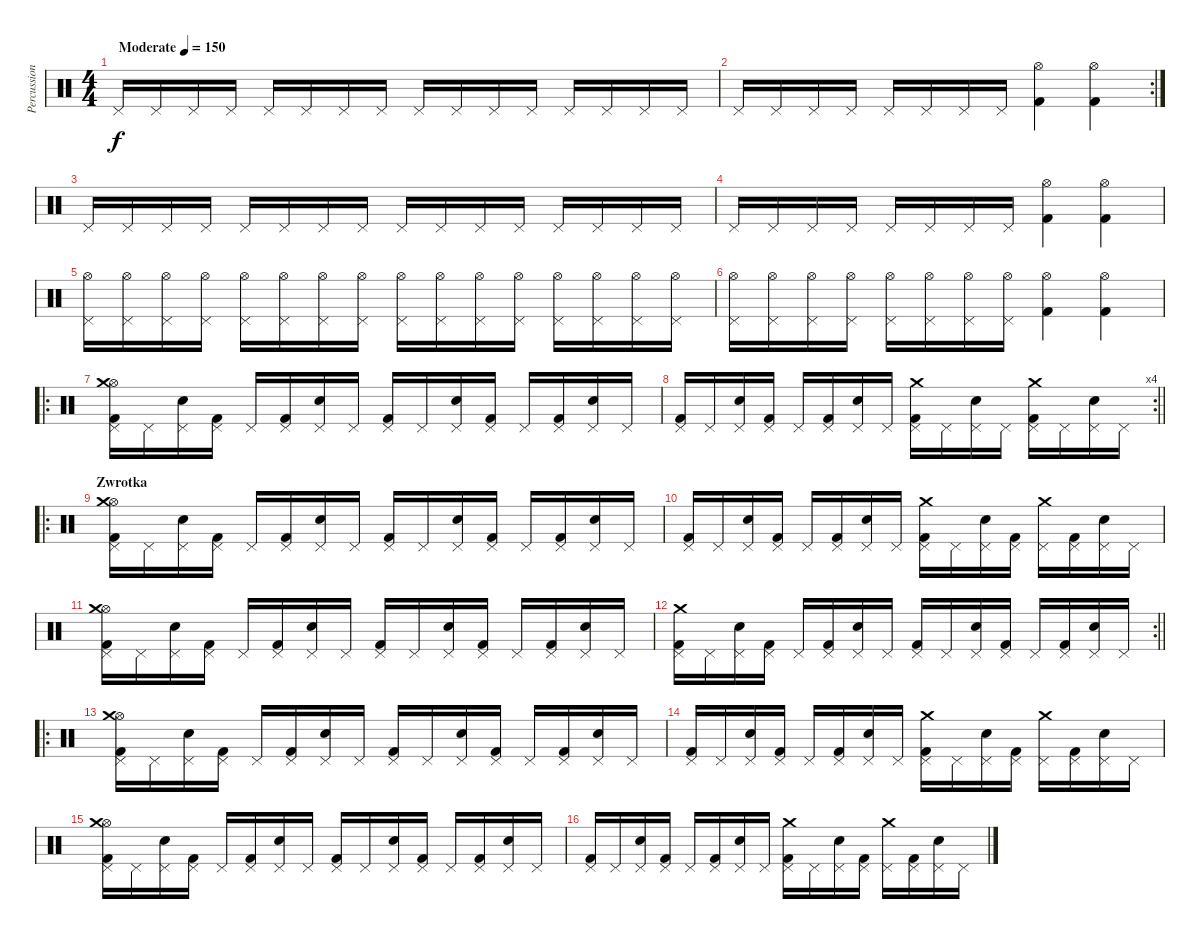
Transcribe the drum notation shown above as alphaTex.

\track ("Percussion" "Percussion") {instrument percussion}
\staff {score}
\articulation defaults
\ts (4 4)
\tempo (150 "Moderate")
\clef neutral
\ks c "Pedal Hi-Hat (hit)".16{dy f} "Pedal Hi-Hat (hit)".16 "Pedal Hi-Hat (hit)".16 "Pedal Hi-Hat (hit)".16 "Pedal Hi-Hat (hit)".16 "Pedal Hi-Hat (hit)".16 "Pedal Hi-Hat (hit)".16 "Pedal Hi-Hat (hit)".16 "Pedal Hi-Hat (hit)".16 "Pedal Hi-Hat (hit)".16 "Pedal Hi-Hat (hit)".16 "Pedal Hi-Hat (hit)".16 "Pedal Hi-Hat (hit)".16 "Pedal Hi-Hat (hit)".16 "Pedal Hi-Hat (hit)".16 "Pedal Hi-Hat (hit)".16
|
\rc 2 "Pedal Hi-Hat (hit)".16 "Pedal Hi-Hat (hit)".16 "Pedal Hi-Hat (hit)".16 "Pedal Hi-Hat (hit)".16 "Pedal Hi-Hat (hit)".16 "Pedal Hi-Hat (hit)".16 "Pedal Hi-Hat (hit)".16 "Pedal Hi-Hat (hit)".16
("Kick (hit) 2" "Hi-Hat (open)").4 ("Kick (hit) 2" "Hi-Hat (open)").4 |
"Pedal Hi-Hat (hit)".16 "Pedal Hi-Hat (hit)".16 "Pedal Hi-Hat (hit)".16 "Pedal Hi-Hat (hit)".16 "Pedal Hi-Hat (hit)".16 "Pedal Hi-Hat (hit)".16 "Pedal Hi-Hat (hit)".16 "Pedal Hi-Hat (hit)".16 "Pedal Hi-Hat (hit)".16 "Pedal Hi-Hat (hit)".16 "Pedal Hi-Hat (hit)".16 "Pedal Hi-Hat (hit)".16 "Pedal Hi-Hat (hit)".16 "Pedal Hi-Hat (hit)".16 "Pedal Hi-Hat (hit)".16 "Pedal Hi-Hat (hit)".16 |
"Pedal Hi-Hat (hit)".16 "Pedal Hi-Hat (hit)".16 "Pedal Hi-Hat (hit)".16 "Pedal Hi-Hat (hit)".16 "Pedal Hi-Hat (hit)".16 "Pedal Hi-Hat (hit)".16 "Pedal Hi-Hat (hit)".16 "Pedal Hi-Hat (hit)".16 ("Kick (hit) 2" "Hi-Hat (open)").4 ("Kick (hit) 2" "Hi-Hat (open)").4 |
("Pedal Hi-Hat (hit)" "Hi-Hat (open)").16 ("Pedal Hi-Hat (hit)" "Hi-Hat (open)").16 ("Pedal Hi-Hat (hit)" "Hi-Hat (open)").16 ("Pedal Hi-Hat (hit)" "Hi-Hat (open)").16 ("Pedal Hi-Hat (hit)" "Hi-Hat (open)").16 ("Pedal Hi-Hat (hit)" "Hi-Hat (open)").16 ("Pedal Hi-Hat (hit)" "Hi-Hat (open)").16 ("Pedal Hi-Hat (hit)" "Hi-Hat (open)").16 ("Pedal Hi-Hat (hit)" "Hi-Hat (open)").16 ("Pedal Hi-Hat (hit)" "Hi-Hat (open)").16 ("Pedal Hi-Hat (hit)" "Hi-Hat (open)").16 ("Pedal Hi-Hat (hit)" "Hi-Hat (open)").16 ("Pedal Hi-Hat (hit)" "Hi-Hat (open)").16 ("Pedal Hi-Hat (hit)" "Hi-Hat (open)").16 ("Pedal Hi-Hat (hit)" "Hi-Hat (open)").16 ("Pedal Hi-Hat (hit)" "Hi-Hat (open)").16 |
("Pedal Hi-Hat (hit)" "Hi-Hat (open)").16 ("Pedal Hi-Hat (hit)" "Hi-Hat (open)").16 ("Pedal Hi-Hat (hit)" "Hi-Hat (open)").16 ("Pedal Hi-Hat (hit)" "Hi-Hat (open)").16 ("Pedal Hi-Hat (hit)" "Hi-Hat (open)").16 ("Pedal Hi-Hat (hit)" "Hi-Hat (open)").16 ("Pedal Hi-Hat (hit)" "Hi-Hat (open)").16 ("Pedal Hi-Hat (hit)" "Hi-Hat (open)").16 ("Kick (hit) 2" "Hi-Hat (open)").4 ("Kick (hit) 2" "Hi-Hat (open)").4 |
\ro
("Pedal Hi-Hat (hit)" "Kick (hit) 2" "Hi-Hat (open)" "Crash medium (hit)").16 "Pedal Hi-Hat (hit)".16 ("Pedal Hi-Hat (hit)" "Snare (hit) 2").16 ("Pedal Hi-Hat (hit)" "Kick (hit) 2").16 "Pedal Hi-Hat (hit)".16 ("Pedal Hi-Hat (hit)" "Kick (hit) 2").16 ("Pedal Hi-Hat (hit)" "Snare (hit) 2").16 "Pedal Hi-Hat (hit)".16 ("Pedal Hi-Hat (hit)" "Kick (hit) 2").16 "Pedal Hi-Hat (hit)".16 ("Pedal Hi-Hat (hit)" "Snare (hit) 2").16 ("Pedal Hi-Hat (hit)" "Kick (hit) 2").16 "Pedal Hi-Hat (hit)".16 ("Pedal Hi-Hat (hit)" "Kick (hit) 2").16 ("Pedal Hi-Hat (hit)" "Snare (hit) 2").16 "Pedal Hi-Hat (hit)".16 |
\rc 4
\barLineRight lightlight
("Pedal Hi-Hat (hit)" "Kick (hit) 2").16 "Pedal Hi-Hat (hit)".16 ("Pedal Hi-Hat (hit)" "Snare (hit) 2").16 ("Pedal Hi-Hat (hit)" "Kick (hit) 2").16 "Pedal Hi-Hat (hit)".16 ("Pedal Hi-Hat (hit)" "Kick (hit) 2").16 ("Pedal Hi-Hat (hit)" "Snare (hit) 2").16 "Pedal Hi-Hat (hit)".16 ("Pedal Hi-Hat (hit)" "Kick (hit) 2" "Crash medium (hit)").16 "Pedal Hi-Hat (hit)".16 ("Pedal Hi-Hat (hit)" "Snare (hit) 2").16 "Pedal Hi-Hat (hit)".16 ("Pedal Hi-Hat (hit)" "Kick (hit) 2" "Crash medium (hit)").16 "Pedal Hi-Hat (hit)".16 ("Pedal Hi-Hat (hit)" "Snare (hit) 2").16 "Pedal Hi-Hat (hit)".16 |
\ro
\section ("" "Zwrotka")
("Pedal Hi-Hat (hit)" "Kick (hit) 2" "Hi-Hat (open)" "Crash medium (hit)").16 "Pedal Hi-Hat (hit)".16 ("Pedal Hi-Hat (hit)" "Snare (hit) 2").16 ("Pedal Hi-Hat (hit)" "Kick (hit) 2").16 "Pedal Hi-Hat (hit)".16 ("Pedal Hi-Hat (hit)" "Kick (hit) 2").16 ("Pedal Hi-Hat (hit)" "Snare (hit) 2").16 "Pedal Hi-Hat (hit)".16 ("Pedal Hi-Hat (hit)" "Kick (hit) 2").16 "Pedal Hi-Hat (hit)".16 ("Pedal Hi-Hat (hit)" "Snare (hit) 2").16 ("Pedal Hi-Hat (hit)" "Kick (hit) 2").16 "Pedal Hi-Hat (hit)".16 ("Pedal Hi-Hat (hit)" "Kick (hit) 2").16 ("Pedal Hi-Hat (hit)" "Snare (hit) 2").16 "Pedal Hi-Hat (hit)".16 |
("Pedal Hi-Hat (hit)" "Kick (hit) 2").16 "Pedal Hi-Hat (hit)".16 ("Pedal Hi-Hat (hit)" "Snare (hit) 2").16 ("Pedal Hi-Hat (hit)" "Kick (hit) 2").16 "Pedal Hi-Hat (hit)".16 ("Pedal Hi-Hat (hit)" "Kick (hit) 2").16 ("Pedal Hi-Hat (hit)" "Snare (hit) 2").16 "Pedal Hi-Hat (hit)".16 ("Pedal Hi-Hat (hit)" "Kick (hit) 2" "Crash medium (hit)").16 "Pedal Hi-Hat (hit)".16 ("Pedal Hi-Hat (hit)" "Snare (hit) 2").16 ("Pedal Hi-Hat (hit)" "Kick (hit) 2").16 ("Pedal Hi-Hat (hit)" "Crash medium (hit)").16 ("Pedal Hi-Hat (hit)" "Kick (hit) 2").16 ("Pedal Hi-Hat (hit)" "Snare (hit) 2").16 "Pedal Hi-Hat (hit)".16 |
("Pedal Hi-Hat (hit)" "Kick (hit) 2" "Hi-Hat (open)" "Crash medium (hit)").16 "Pedal Hi-Hat (hit)".16 ("Pedal Hi-Hat (hit)" "Snare (hit) 2").16 ("Pedal Hi-Hat (hit)" "Kick (hit) 2").16 "Pedal Hi-Hat (hit)".16 ("Pedal Hi-Hat (hit)" "Kick (hit) 2").16 ("Pedal Hi-Hat (hit)" "Snare (hit) 2").16 "Pedal Hi-Hat (hit)".16 ("Pedal Hi-Hat (hit)" "Kick (hit) 2").16 "Pedal Hi-Hat (hit)".16 ("Pedal Hi-Hat (hit)" "Snare (hit) 2").16 ("Pedal Hi-Hat (hit)" "Kick (hit) 2").16 "Pedal Hi-Hat (hit)".16 ("Pedal Hi-Hat (hit)" "Kick (hit) 2").16 ("Pedal Hi-Hat (hit)" "Snare (hit) 2").16 "Pedal Hi-Hat (hit)".16 |
\rc 2
\barLineRight lightlight
("Pedal Hi-Hat (hit)" "Kick (hit) 2" "Crash medium (hit)").16 "Pedal Hi-Hat (hit)".16 ("Pedal Hi-Hat (hit)" "Snare (hit) 2").16 ("Pedal Hi-Hat (hit)" "Kick (hit) 2").16 "Pedal Hi-Hat (hit)".16 ("Pedal Hi-Hat (hit)" "Kick (hit) 2").16 ("Pedal Hi-Hat (hit)" "Snare (hit) 2").16 "Pedal Hi-Hat (hit)".16 ("Pedal Hi-Hat (hit)" "Kick (hit) 2").16 "Pedal Hi-Hat (hit)".16 ("Pedal Hi-Hat (hit)" "Snare (hit) 2").16 ("Pedal Hi-Hat (hit)" "Kick (hit) 2").16 "Pedal Hi-Hat (hit)".16 ("Pedal Hi-Hat (hit)" "Kick (hit) 2").16 ("Pedal Hi-Hat (hit)" "Snare (hit) 2").16 "Pedal Hi-Hat (hit)".16 |
\ro
("Pedal Hi-Hat (hit)" "Kick (hit) 2" "Hi-Hat (open)" "Crash medium (hit)").16 "Pedal Hi-Hat (hit)".16 ("Pedal Hi-Hat (hit)" "Snare (hit) 2").16 ("Pedal Hi-Hat (hit)" "Kick (hit) 2").16 "Pedal Hi-Hat (hit)".16 ("Pedal Hi-Hat (hit)" "Kick (hit) 2").16 ("Pedal Hi-Hat (hit)" "Snare (hit) 2").16 "Pedal Hi-Hat (hit)".16 ("Pedal Hi-Hat (hit)" "Kick (hit) 2").16 "Pedal Hi-Hat (hit)".16 ("Pedal Hi-Hat (hit)" "Snare (hit) 2").16 ("Pedal Hi-Hat (hit)" "Kick (hit) 2").16 "Pedal Hi-Hat (hit)".16 ("Pedal Hi-Hat (hit)" "Kick (hit) 2").16 ("Pedal Hi-Hat (hit)" "Snare (hit) 2").16 "Pedal Hi-Hat (hit)".16 |
("Pedal Hi-Hat (hit)" "Kick (hit) 2").16 "Pedal Hi-Hat (hit)".16 ("Pedal Hi-Hat (hit)" "Snare (hit) 2").16 ("Pedal Hi-Hat (hit)" "Kick (hit) 2").16 "Pedal Hi-Hat (hit)".16 ("Pedal Hi-Hat (hit)" "Kick (hit) 2").16 ("Pedal Hi-Hat (hit)" "Snare (hit) 2").16 "Pedal Hi-Hat (hit)".16 ("Pedal Hi-Hat (hit)" "Kick (hit) 2" "Crash medium (hit)").16 "Pedal Hi-Hat (hit)".16 ("Pedal Hi-Hat (hit)" "Snare (hit) 2").16 ("Pedal Hi-Hat (hit)" "Kick (hit) 2").16 ("Pedal Hi-Hat (hit)" "Crash medium (hit)").16 ("Pedal Hi-Hat (hit)" "Kick (hit) 2").16 ("Pedal Hi-Hat (hit)" "Snare (hit) 2").16 "Pedal Hi-Hat (hit)".16 |
("Pedal Hi-Hat (hit)" "Kick (hit) 2" "Hi-Hat (open)" "Crash medium (hit)").16 "Pedal Hi-Hat (hit)".16 ("Pedal Hi-Hat (hit)" "Snare (hit) 2").16 ("Pedal Hi-Hat (hit)" "Kick (hit) 2").16 "Pedal Hi-Hat (hit)".16 ("Pedal Hi-Hat (hit)" "Kick (hit) 2").16 ("Pedal Hi-Hat (hit)" "Snare (hit) 2").16 "Pedal Hi-Hat (hit)".16 ("Pedal Hi-Hat (hit)" "Kick (hit) 2").16 "Pedal Hi-Hat (hit)".16 ("Pedal Hi-Hat (hit)" "Snare (hit) 2").16 ("Pedal Hi-Hat (hit)" "Kick (hit) 2").16 "Pedal Hi-Hat (hit)".16 ("Pedal Hi-Hat (hit)" "Kick (hit) 2").16 ("Pedal Hi-Hat (hit)" "Snare (hit) 2").16 "Pedal Hi-Hat (hit)".16 |
("Pedal Hi-Hat (hit)" "Kick (hit) 2").16 "Pedal Hi-Hat (hit)".16 ("Pedal Hi-Hat (hit)" "Snare (hit) 2").16 ("Pedal Hi-Hat (hit)" "Kick (hit) 2").16 "Pedal Hi-Hat (hit)".16 ("Pedal Hi-Hat (hit)" "Kick (hit) 2").16 ("Pedal Hi-Hat (hit)" "Snare (hit) 2").16 "Pedal Hi-Hat (hit)".16 ("Pedal Hi-Hat (hit)" "Kick (hit) 2" "Crash medium (hit)").16 "Pedal Hi-Hat (hit)".16 ("Pedal Hi-Hat (hit)" "Snare (hit) 2").16 ("Pedal Hi-Hat (hit)" "Kick (hit) 2").16 ("Pedal Hi-Hat (hit)" "Crash medium (hit)").16 ("Pedal Hi-Hat (hit)" "Kick (hit) 2").16 ("Pedal Hi-Hat (hit)" "Snare (hit) 2").16 "Pedal Hi-Hat (hit)".16
